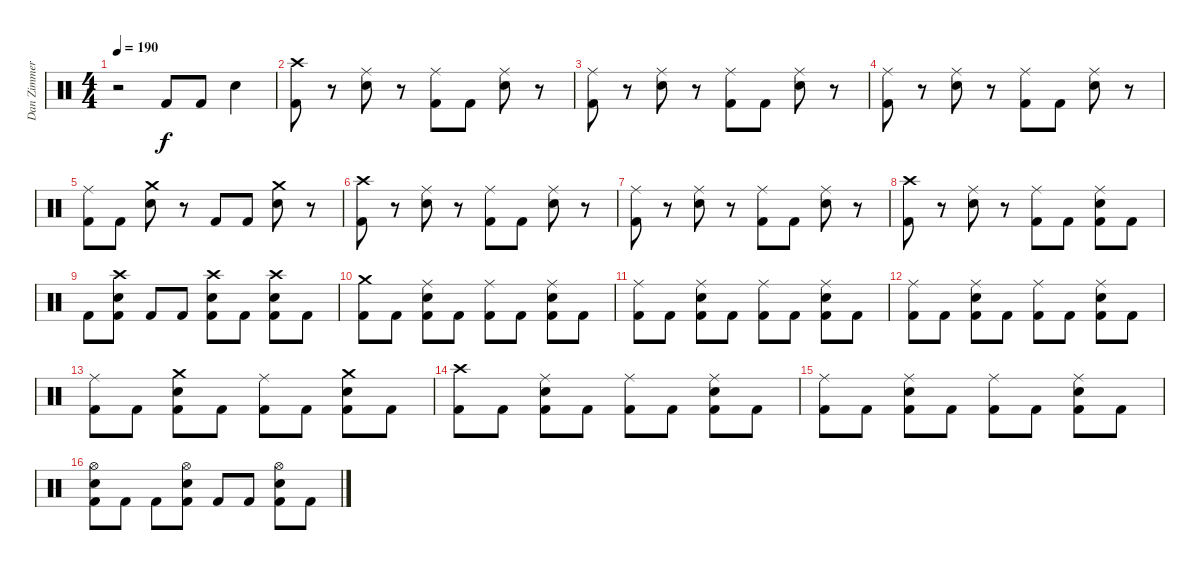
\track ("Dan Zimmermann" "Dan Zimmer") {instrument percussion}
\staff {score}
\articulation defaults
\ts (4 4)
\tempo 190
\clef neutral
\ks c
r.2{dy f} "Kick (hit) 2".8 "Kick (hit) 2".8 "Electric Snare (hit)".4 |
("Crash high (hit)" "Kick (hit) 2").8 r.8 ("Ride (middle)" "Electric Snare (hit)").8 r.8 ("Ride (middle)" "Kick (hit) 2").8 "Kick (hit) 2".8 ("Ride (middle)" "Electric Snare (hit)").8 r.8 |
("Ride (middle)" "Kick (hit) 2").8 r.8 ("Ride (middle)" "Electric Snare (hit)").8 r.8 ("Ride (middle)" "Kick (hit) 2").8 "Kick (hit) 2".8 ("Ride (middle)" "Electric Snare (hit)").8 r.8 |
("Ride (middle)" "Kick (hit) 2").8 r.8 ("Ride (middle)" "Electric Snare (hit)").8 r.8 ("Ride (middle)" "Kick (hit) 2").8 "Kick (hit) 2".8 ("Ride (middle)" "Electric Snare (hit)").8 r.8 |
("Ride (middle)" "Kick (hit) 2").8 "Kick (hit) 2".8 ("Crash medium (hit)" "Electric Snare (hit)").8 r.8 "Kick (hit) 2".8 "Kick (hit) 2".8 ("Crash medium (hit)" "Electric Snare (hit)").8 r.8 |
("Crash high (hit)" "Kick (hit) 2").8 r.8 ("Ride (middle)" "Electric Snare (hit)").8 r.8 ("Ride (middle)" "Kick (hit) 2").8 "Kick (hit) 2".8 ("Ride (middle)" "Electric Snare (hit)").8 r.8 |
("Ride (middle)" "Kick (hit) 2").8 r.8 ("Ride (middle)" "Electric Snare (hit)").8 r.8 ("Ride (middle)" "Kick (hit) 2").8 "Kick (hit) 2".8 ("Ride (middle)" "Electric Snare (hit)").8 r.8 |
("Crash high (hit)" "Kick (hit) 2").8 r.8 ("Ride (middle)" "Electric Snare (hit)").8 r.8 ("Ride (middle)" "Kick (hit) 2").8 "Kick (hit) 2".8 ("Ride (middle)" "Electric Snare (hit)" "Kick (hit) 2").8 "Kick (hit) 2".8 |
"Kick (hit) 2".8 ("Crash high (hit)" "Electric Snare (hit)" "Kick (hit) 2").8 "Kick (hit) 2".8 "Kick (hit) 2".8 ("Crash high (hit)" "Electric Snare (hit)" "Kick (hit) 2").8 "Kick (hit) 2".8 ("Crash high (hit)" "Electric Snare (hit)" "Kick (hit) 2").8 "Kick (hit) 2".8 |
("Crash medium (hit)" "Kick (hit) 2").8 "Kick (hit) 2".8 ("Ride (middle)" "Electric Snare (hit)" "Kick (hit) 2").8 "Kick (hit) 2".8 ("Ride (middle)" "Kick (hit) 2").8 "Kick (hit) 2".8 ("Ride (middle)" "Electric Snare (hit)" "Kick (hit) 2").8 "Kick (hit) 2".8 |
("Ride (middle)" "Kick (hit) 2").8 "Kick (hit) 2".8 ("Ride (middle)" "Electric Snare (hit)" "Kick (hit) 2").8 "Kick (hit) 2".8 ("Ride (middle)" "Kick (hit) 2").8 "Kick (hit) 2".8 ("Ride (middle)" "Electric Snare (hit)" "Kick (hit) 2").8 "Kick (hit) 2".8 |
("Ride (middle)" "Kick (hit) 2").8 "Kick (hit) 2".8 ("Ride (middle)" "Electric Snare (hit)" "Kick (hit) 2").8 "Kick (hit) 2".8 ("Ride (middle)" "Kick (hit) 2").8 "Kick (hit) 2".8 ("Ride (middle)" "Electric Snare (hit)" "Kick (hit) 2").8 "Kick (hit) 2".8 |
("Ride (middle)" "Kick (hit) 2").8 "Kick (hit) 2".8 ("Crash medium (hit)" "Electric Snare (hit)" "Kick (hit) 2").8 "Kick (hit) 2".8 ("Ride (middle)" "Kick (hit) 2").8 "Kick (hit) 2".8 ("Crash medium (hit)" "Electric Snare (hit)" "Kick (hit) 2").8 "Kick (hit) 2".8 |
("Crash high (hit)" "Kick (hit) 2").8 "Kick (hit) 2".8 ("Ride (middle)" "Electric Snare (hit)" "Kick (hit) 2").8 "Kick (hit) 2".8 ("Ride (middle)" "Kick (hit) 2").8 "Kick (hit) 2".8 ("Ride (middle)" "Electric Snare (hit)" "Kick (hit) 2").8 "Kick (hit) 2".8 |
("Ride (middle)" "Kick (hit) 2").8 "Kick (hit) 2".8 ("Ride (middle)" "Electric Snare (hit)" "Kick (hit) 2").8 "Kick (hit) 2".8 ("Ride (middle)" "Kick (hit) 2").8 "Kick (hit) 2".8 ("Ride (middle)" "Electric Snare (hit)" "Kick (hit) 2").8 "Kick (hit) 2".8 |
("Hi-Hat (open)" "Electric Snare (hit)" "Kick (hit) 2").8 "Kick (hit) 2".8 "Kick (hit) 2".8 ("Hi-Hat (open)" "Electric Snare (hit)" "Kick (hit) 2").8 "Kick (hit) 2".8 "Kick (hit) 2".8 ("Hi-Hat (open)" "Electric Snare (hit)" "Kick (hit) 2").8 "Kick (hit) 2".8
